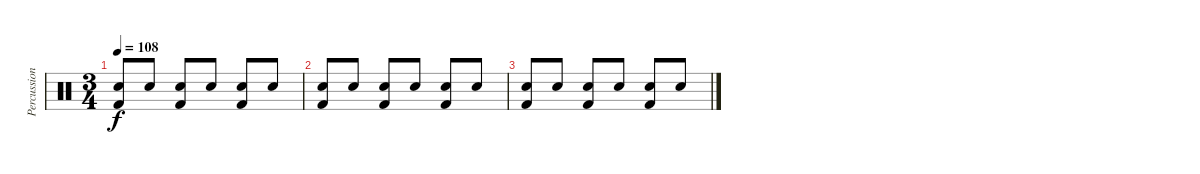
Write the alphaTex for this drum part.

\track ("Percussion" "Percussion") {instrument percussion}
\staff {score}
\articulation defaults
\ts (3 4)
\tempo 108
\clef neutral
\ks c
("Snare (hit) 2" "Kick (hit) 2").8{dy f} "Snare (hit) 2".8 ("Snare (hit) 2" "Kick (hit) 2").8 "Snare (hit) 2".8 ("Snare (hit) 2" "Kick (hit) 2").8 "Snare (hit) 2".8 |
("Snare (hit) 2" "Kick (hit) 2").8 "Snare (hit) 2".8 ("Snare (hit) 2" "Kick (hit) 2").8 "Snare (hit) 2".8 ("Snare (hit) 2" "Kick (hit) 2").8 "Snare (hit) 2".8 |
("Snare (hit) 2" "Kick (hit) 2").8 "Snare (hit) 2".8 ("Snare (hit) 2" "Kick (hit) 2").8 "Snare (hit) 2".8 ("Snare (hit) 2" "Kick (hit) 2").8 "Snare (hit) 2".8
